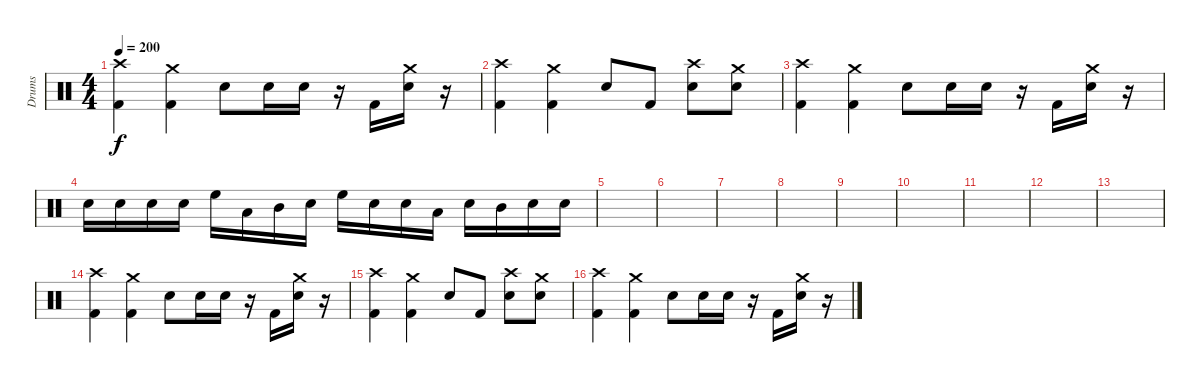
\track ("Drums" "Drums") {instrument percussion}
\staff {score}
\articulation defaults
\ts (4 4)
\tempo 200
\clef neutral
\ks c
("Crash high (hit)" "Kick (hit) 2").4{dy f} ("Crash medium (hit)" "Kick (hit) 2").4 "Electric Snare (hit)".8 "Electric Snare (hit)".16 "Electric Snare (hit)".16 r.16 "Kick (hit) 2".16 ("Electric Snare (hit)" "Crash medium (hit)").16 r.16 |
("Crash high (hit)" "Kick (hit) 2").4 ("Crash medium (hit)" "Kick (hit) 2").4 "Electric Snare (hit)".8 "Kick (hit) 2".8 ("Electric Snare (hit)" "Crash high (hit)").8 ("Electric Snare (hit)" "Crash medium (hit)").8 |
("Crash high (hit)" "Kick (hit) 2").4 ("Crash medium (hit)" "Kick (hit) 2").4 "Electric Snare (hit)".8 "Electric Snare (hit)".16 "Electric Snare (hit)".16 r.16 "Kick (hit) 2".16 ("Electric Snare (hit)" "Crash medium (hit)").16 r.16 |
"Electric Snare (hit)".16 "Electric Snare (hit)".16 "Electric Snare (hit)".16 "Electric Snare (hit)".16 "High Floor Tom (hit)".16 "Low Tom (hit)".16 "Mid Tom (hit)".16 "Electric Snare (hit)".16 "High Floor Tom (hit)".16 "Electric Snare (hit)".16 "Electric Snare (hit)".16 "Low Tom (hit)".16 "Electric Snare (hit)".16 "Mid Tom (hit)".16 "Electric Snare (hit)".16 "Electric Snare (hit)".16 |
|
|
|
|
|
|
|
|
|
("Crash high (hit)" "Kick (hit) 2").4 ("Crash medium (hit)" "Kick (hit) 2").4 "Electric Snare (hit)".8 "Electric Snare (hit)".16 "Electric Snare (hit)".16 r.16 "Kick (hit) 2".16 ("Electric Snare (hit)" "Crash medium (hit)").16 r.16 |
("Crash high (hit)" "Kick (hit) 2").4 ("Crash medium (hit)" "Kick (hit) 2").4 "Electric Snare (hit)".8 "Kick (hit) 2".8 ("Electric Snare (hit)" "Crash high (hit)").8 ("Electric Snare (hit)" "Crash medium (hit)").8 |
("Crash high (hit)" "Kick (hit) 2").4 ("Crash medium (hit)" "Kick (hit) 2").4 "Electric Snare (hit)".8 "Electric Snare (hit)".16 "Electric Snare (hit)".16 r.16 "Kick (hit) 2".16 ("Electric Snare (hit)" "Crash medium (hit)").16 r.16
